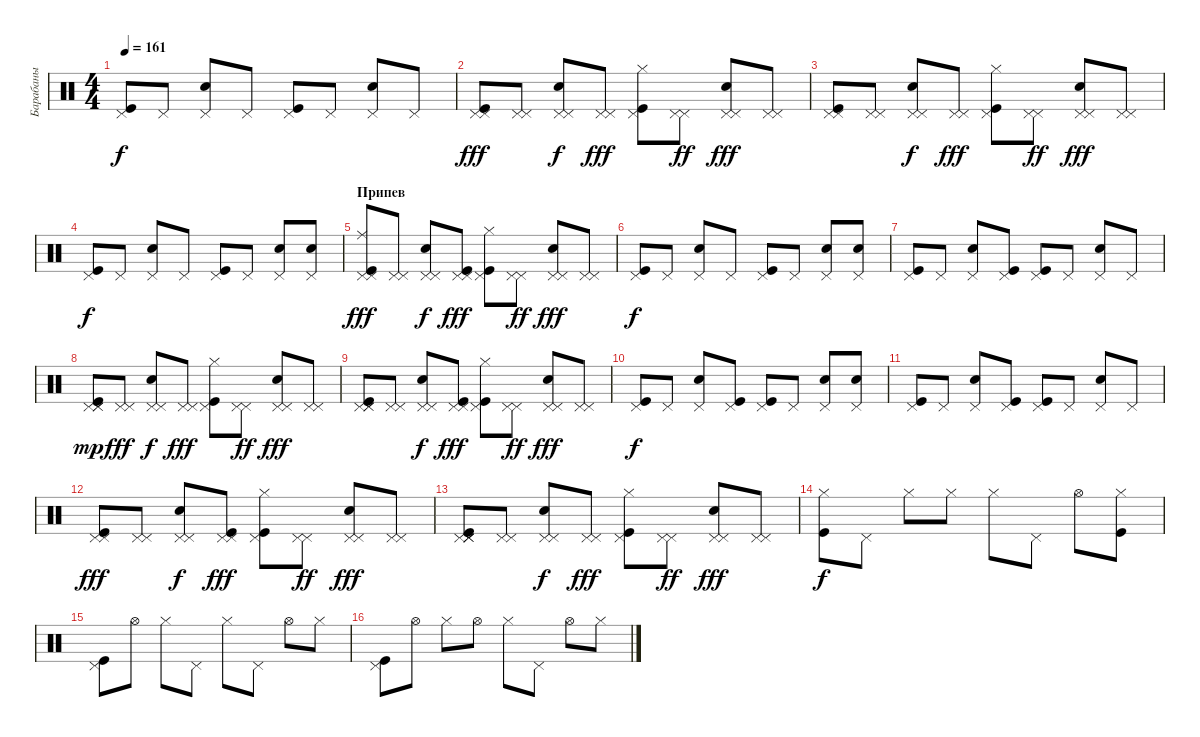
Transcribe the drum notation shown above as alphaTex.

\track ("Барабаны" "Барабаны") {instrument percussion}
\staff {score}
\articulation defaults
\ts (4 4)
\tempo 161
\clef neutral
\ks c
("Kick (hit)" "Pedal Hi-Hat (hit)").8{dy f} "Pedal Hi-Hat (hit)".8 ("Snare (hit) 2" "Pedal Hi-Hat (hit)").8 "Pedal Hi-Hat (hit)".8 ("Kick (hit)" "Pedal Hi-Hat (hit)").8 "Pedal Hi-Hat (hit)".8 ("Snare (hit) 2" "Pedal Hi-Hat (hit)").8 "Pedal Hi-Hat (hit)".8 |
("Pedal Hi-Hat (hit)" "Kick (hit)" "Pedal Hi-Hat (hit)").8{dy fff} ("Pedal Hi-Hat (hit)" "Pedal Hi-Hat (hit)").8 ("Snare (hit) 2" "Pedal Hi-Hat (hit)" "Pedal Hi-Hat (hit)").8{dy f} ("Pedal Hi-Hat (hit)" "Pedal Hi-Hat (hit)").8{dy fff} ("Kick (hit)" "Hi-Hat (closed)" "Pedal Hi-Hat (hit)").8 ("Pedal Hi-Hat (hit)" "Pedal Hi-Hat (hit)").8{dy ff} ("Snare (hit) 2" "Pedal Hi-Hat (hit)" "Pedal Hi-Hat (hit)").8{dy fff} ("Pedal Hi-Hat (hit)" "Pedal Hi-Hat (hit)").8 |
("Pedal Hi-Hat (hit)" "Kick (hit)" "Pedal Hi-Hat (hit)").8 ("Pedal Hi-Hat (hit)" "Pedal Hi-Hat (hit)").8 ("Snare (hit) 2" "Pedal Hi-Hat (hit)" "Pedal Hi-Hat (hit)").8{dy f} ("Pedal Hi-Hat (hit)" "Pedal Hi-Hat (hit)").8{dy fff} ("Kick (hit)" "Pedal Hi-Hat (hit)" "Hi-Hat (closed)").8 ("Pedal Hi-Hat (hit)" "Pedal Hi-Hat (hit)").8{dy ff} ("Snare (hit) 2" "Pedal Hi-Hat (hit)" "Pedal Hi-Hat (hit)").8{dy fff} ("Pedal Hi-Hat (hit)" "Pedal Hi-Hat (hit)").8 |
("Kick (hit)" "Pedal Hi-Hat (hit)").8{dy f} "Pedal Hi-Hat (hit)".8 ("Snare (hit) 2" "Pedal Hi-Hat (hit)").8 "Pedal Hi-Hat (hit)".8 ("Kick (hit)" "Pedal Hi-Hat (hit)").8 "Pedal Hi-Hat (hit)".8 ("Snare (hit) 2" "Pedal Hi-Hat (hit)").8 ("Snare (hit) 2" "Pedal Hi-Hat (hit)").8 |
\section ("" "Припев")
("Ride (middle)" "Pedal Hi-Hat (hit)" "Kick (hit)" "Pedal Hi-Hat (hit)").8{dy fff} ("Pedal Hi-Hat (hit)" "Pedal Hi-Hat (hit)").8 ("Snare (hit) 2" "Pedal Hi-Hat (hit)" "Pedal Hi-Hat (hit)").8{dy f} ("Kick (hit)" "Pedal Hi-Hat (hit)" "Pedal Hi-Hat (hit)").8{dy fff} ("Kick (hit)" "Pedal Hi-Hat (hit)" "Hi-Hat (closed)").8 ("Pedal Hi-Hat (hit)" "Pedal Hi-Hat (hit)").8{dy ff} ("Snare (hit) 2" "Pedal Hi-Hat (hit)" "Pedal Hi-Hat (hit)").8{dy fff} ("Pedal Hi-Hat (hit)" "Pedal Hi-Hat (hit)").8 |
("Kick (hit)" "Pedal Hi-Hat (hit)").8{dy f} "Pedal Hi-Hat (hit)".8 ("Snare (hit) 2" "Pedal Hi-Hat (hit)").8 "Pedal Hi-Hat (hit)".8 ("Kick (hit)" "Pedal Hi-Hat (hit)").8 "Pedal Hi-Hat (hit)".8 ("Snare (hit) 2" "Pedal Hi-Hat (hit)").8 ("Snare (hit) 2" "Pedal Hi-Hat (hit)").8 |
("Kick (hit)" "Pedal Hi-Hat (hit)").8 "Pedal Hi-Hat (hit)".8 ("Snare (hit) 2" "Pedal Hi-Hat (hit)").8 ("Kick (hit)" "Pedal Hi-Hat (hit)").8 ("Kick (hit)" "Pedal Hi-Hat (hit)").8 "Pedal Hi-Hat (hit)".8 ("Snare (hit) 2" "Pedal Hi-Hat (hit)").8 "Pedal Hi-Hat (hit)".8 |
("Pedal Hi-Hat (hit)" "Kick (hit)" "Pedal Hi-Hat (hit)" "Pedal Hi-Hat (hit)").8{dy mp} ("Pedal Hi-Hat (hit)" "Pedal Hi-Hat (hit)").8{dy fff} ("Snare (hit) 2" "Pedal Hi-Hat (hit)" "Pedal Hi-Hat (hit)").8{dy f} ("Pedal Hi-Hat (hit)" "Pedal Hi-Hat (hit)").8{dy fff} ("Kick (hit)" "Hi-Hat (closed)" "Pedal Hi-Hat (hit)").8 ("Pedal Hi-Hat (hit)" "Pedal Hi-Hat (hit)").8{dy ff} ("Snare (hit) 2" "Pedal Hi-Hat (hit)" "Pedal Hi-Hat (hit)").8{dy fff} ("Pedal Hi-Hat (hit)" "Pedal Hi-Hat (hit)").8 |
("Pedal Hi-Hat (hit)" "Pedal Hi-Hat (hit)" "Kick (hit)" "Pedal Hi-Hat (hit)").8 ("Pedal Hi-Hat (hit)" "Pedal Hi-Hat (hit)").8 ("Snare (hit) 2" "Pedal Hi-Hat (hit)" "Pedal Hi-Hat (hit)").8{dy f} ("Kick (hit)" "Pedal Hi-Hat (hit)" "Pedal Hi-Hat (hit)").8{dy fff} ("Kick (hit)" "Pedal Hi-Hat (hit)" "Hi-Hat (closed)").8 ("Pedal Hi-Hat (hit)" "Pedal Hi-Hat (hit)").8{dy ff} ("Snare (hit) 2" "Pedal Hi-Hat (hit)" "Pedal Hi-Hat (hit)").8{dy fff} ("Pedal Hi-Hat (hit)" "Pedal Hi-Hat (hit)").8 |
("Pedal Hi-Hat (hit)" "Kick (hit)").8{dy f} "Pedal Hi-Hat (hit)".8 ("Snare (hit) 2" "Pedal Hi-Hat (hit)").8 ("Kick (hit)" "Pedal Hi-Hat (hit)").8 ("Kick (hit)" "Pedal Hi-Hat (hit)").8 "Pedal Hi-Hat (hit)".8 ("Snare (hit) 2" "Pedal Hi-Hat (hit)").8 ("Snare (hit) 2" "Pedal Hi-Hat (hit)").8 |
("Kick (hit)" "Pedal Hi-Hat (hit)").8 "Pedal Hi-Hat (hit)".8 ("Snare (hit) 2" "Pedal Hi-Hat (hit)").8 ("Kick (hit)" "Pedal Hi-Hat (hit)").8 ("Kick (hit)" "Pedal Hi-Hat (hit)").8 "Pedal Hi-Hat (hit)".8 ("Snare (hit) 2" "Pedal Hi-Hat (hit)").8 "Pedal Hi-Hat (hit)".8 |
("Pedal Hi-Hat (hit)" "Kick (hit)" "Pedal Hi-Hat (hit)").8{dy fff} ("Pedal Hi-Hat (hit)" "Pedal Hi-Hat (hit)").8 ("Snare (hit) 2" "Pedal Hi-Hat (hit)" "Pedal Hi-Hat (hit)").8{dy f} ("Kick (hit)" "Pedal Hi-Hat (hit)" "Pedal Hi-Hat (hit)").8{dy fff} ("Kick (hit)" "Hi-Hat (closed)" "Pedal Hi-Hat (hit)").8 ("Pedal Hi-Hat (hit)" "Pedal Hi-Hat (hit)").8{dy ff} ("Snare (hit) 2" "Pedal Hi-Hat (hit)" "Pedal Hi-Hat (hit)").8{dy fff} ("Pedal Hi-Hat (hit)" "Pedal Hi-Hat (hit)").8 |
("Pedal Hi-Hat (hit)" "Pedal Hi-Hat (hit)" "Kick (hit)" "Pedal Hi-Hat (hit)" "Pedal Hi-Hat (hit)").8 ("Pedal Hi-Hat (hit)" "Pedal Hi-Hat (hit)").8 ("Snare (hit) 2" "Pedal Hi-Hat (hit)" "Pedal Hi-Hat (hit)").8{dy f} ("Pedal Hi-Hat (hit)" "Pedal Hi-Hat (hit)").8{dy fff} ("Kick (hit)" "Pedal Hi-Hat (hit)" "Hi-Hat (closed)").8 ("Pedal Hi-Hat (hit)" "Pedal Hi-Hat (hit)").8{dy ff} ("Snare (hit) 2" "Pedal Hi-Hat (hit)" "Pedal Hi-Hat (hit)").8{dy fff} ("Pedal Hi-Hat (hit)" "Pedal Hi-Hat (hit)").8 |
("Hi-Hat (closed)" "Kick (hit)").8{dy f} "Pedal Hi-Hat (hit)".8 "Hi-Hat (closed)".8 "Hi-Hat (closed)".8 "Hi-Hat (closed)".8 "Pedal Hi-Hat (hit)".8 "Hi-Hat (open)".8 ("Kick (hit)" "Hi-Hat (closed)").8 |
("Kick (hit)" "Pedal Hi-Hat (hit)").8 "Hi-Hat (open)".8 "Hi-Hat (closed)".8 "Pedal Hi-Hat (hit)".8 "Hi-Hat (closed)".8 "Pedal Hi-Hat (hit)".8 "Hi-Hat (open)".8 "Hi-Hat (closed)".8 |
("Kick (hit)" "Pedal Hi-Hat (hit)").8 "Hi-Hat (open)".8 "Hi-Hat (closed)".8 "Hi-Hat (open)".8 "Hi-Hat (closed)".8 "Pedal Hi-Hat (hit)".8 "Hi-Hat (open)".8 "Hi-Hat (closed)".8
